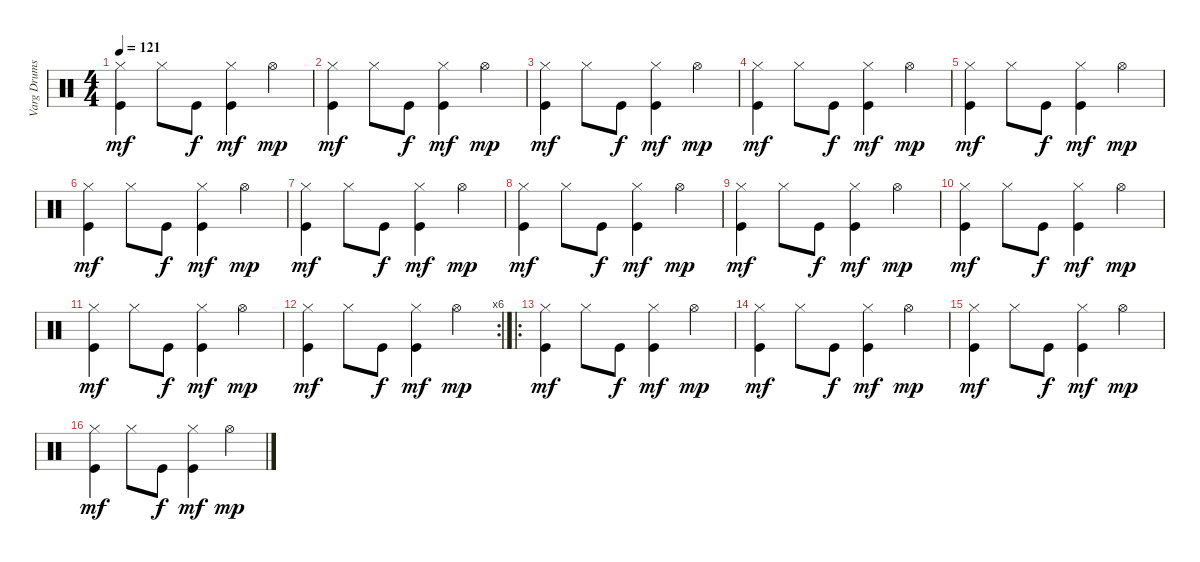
\track ("Varg Drums" "Varg Drums") {instrument percussion}
\staff {score}
\articulation defaults
\ts (4 4)
\tempo 121
\clef neutral
\ks c
("Hi-Hat (closed)" "Kick (hit)").4{dy mf} "Hi-Hat (closed)".8 "Kick (hit)".8{dy f} ("Hi-Hat (closed)" "Kick (hit)").4{dy mf} "Hi-Hat (open)".4{dy mp} |
("Hi-Hat (closed)" "Kick (hit)").4{dy mf} "Hi-Hat (closed)".8 "Kick (hit)".8{dy f} ("Hi-Hat (closed)" "Kick (hit)").4{dy mf} "Hi-Hat (open)".4{dy mp} |
("Hi-Hat (closed)" "Kick (hit)").4{dy mf} "Hi-Hat (closed)".8 "Kick (hit)".8{dy f} ("Hi-Hat (closed)" "Kick (hit)").4{dy mf} "Hi-Hat (open)".4{dy mp} |
("Hi-Hat (closed)" "Kick (hit)").4{dy mf} "Hi-Hat (closed)".8 "Kick (hit)".8{dy f} ("Hi-Hat (closed)" "Kick (hit)").4{dy mf} "Hi-Hat (open)".4{dy mp} |
("Hi-Hat (closed)" "Kick (hit)").4{dy mf} "Hi-Hat (closed)".8 "Kick (hit)".8{dy f} ("Hi-Hat (closed)" "Kick (hit)").4{dy mf} "Hi-Hat (open)".4{dy mp} |
("Hi-Hat (closed)" "Kick (hit)").4{dy mf} "Hi-Hat (closed)".8 "Kick (hit)".8{dy f} ("Hi-Hat (closed)" "Kick (hit)").4{dy mf} "Hi-Hat (open)".4{dy mp} |
("Hi-Hat (closed)" "Kick (hit)").4{dy mf} "Hi-Hat (closed)".8 "Kick (hit)".8{dy f} ("Hi-Hat (closed)" "Kick (hit)").4{dy mf} "Hi-Hat (open)".4{dy mp} |
("Hi-Hat (closed)" "Kick (hit)").4{dy mf} "Hi-Hat (closed)".8 "Kick (hit)".8{dy f} ("Hi-Hat (closed)" "Kick (hit)").4{dy mf} "Hi-Hat (open)".4{dy mp} |
("Hi-Hat (closed)" "Kick (hit)").4{dy mf} "Hi-Hat (closed)".8 "Kick (hit)".8{dy f} ("Hi-Hat (closed)" "Kick (hit)").4{dy mf} "Hi-Hat (open)".4{dy mp} |
("Hi-Hat (closed)" "Kick (hit)").4{dy mf} "Hi-Hat (closed)".8 "Kick (hit)".8{dy f} ("Hi-Hat (closed)" "Kick (hit)").4{dy mf} "Hi-Hat (open)".4{dy mp} |
("Hi-Hat (closed)" "Kick (hit)").4{dy mf} "Hi-Hat (closed)".8 "Kick (hit)".8{dy f} ("Hi-Hat (closed)" "Kick (hit)").4{dy mf} "Hi-Hat (open)".4{dy mp} |
\rc 6
("Hi-Hat (closed)" "Kick (hit)").4{dy mf} "Hi-Hat (closed)".8 "Kick (hit)".8{dy f} ("Hi-Hat (closed)" "Kick (hit)").4{dy mf} "Hi-Hat (open)".4{dy mp} |
\ro
("Hi-Hat (closed)" "Kick (hit)").4{dy mf} "Hi-Hat (closed)".8 "Kick (hit)".8{dy f} ("Hi-Hat (closed)" "Kick (hit)").4{dy mf} "Hi-Hat (open)".4{dy mp} |
("Hi-Hat (closed)" "Kick (hit)").4{dy mf} "Hi-Hat (closed)".8 "Kick (hit)".8{dy f} ("Hi-Hat (closed)" "Kick (hit)").4{dy mf} "Hi-Hat (open)".4{dy mp} |
("Hi-Hat (closed)" "Kick (hit)").4{dy mf} "Hi-Hat (closed)".8 "Kick (hit)".8{dy f} ("Hi-Hat (closed)" "Kick (hit)").4{dy mf} "Hi-Hat (open)".4{dy mp} |
("Hi-Hat (closed)" "Kick (hit)").4{dy mf} "Hi-Hat (closed)".8 "Kick (hit)".8{dy f} ("Hi-Hat (closed)" "Kick (hit)").4{dy mf} "Hi-Hat (open)".4{dy mp}
